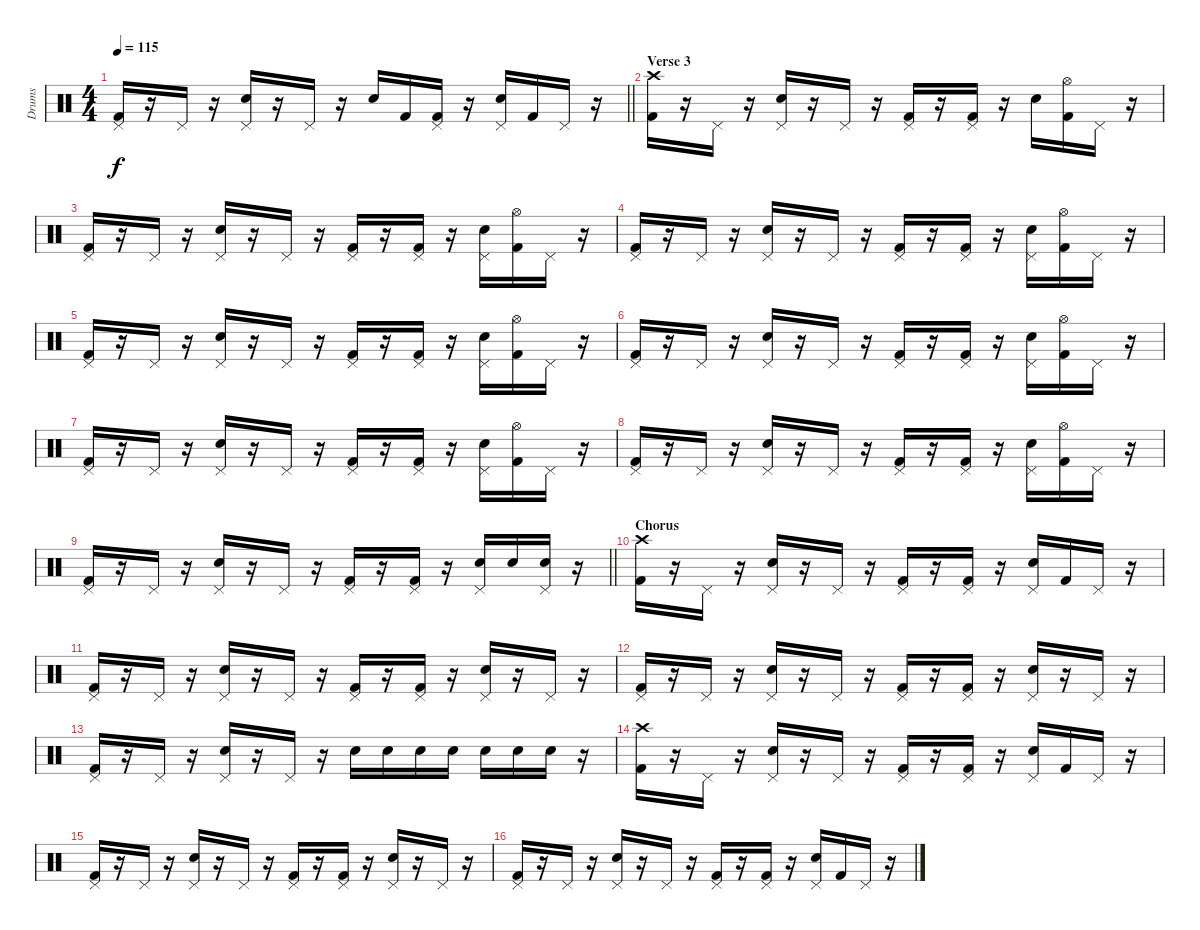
\track ("Drums" "Drums") {instrument percussion}
\staff {score}
\articulation defaults
\ts (4 4)
\tempo 115
\clef neutral
\barLineRight lightlight
\ks c
("Pedal Hi-Hat (hit)" "Kick (hit) 2").16{dy f} r.16 "Pedal Hi-Hat (hit)".16 r.16 ("Pedal Hi-Hat (hit)" "Snare (hit) 2").16 r.16 "Pedal Hi-Hat (hit)".16 r.16 "Snare (hit) 2".16 "Kick (hit) 2".16 ("Pedal Hi-Hat (hit)" "Kick (hit) 2").16 r.16 ("Pedal Hi-Hat (hit)" "Snare (hit) 2").16 "Kick (hit) 2".16 "Pedal Hi-Hat (hit)".16 r.16 |
\section ("" "Verse 3")
("Crash high (hit)" "Kick (hit) 2").16 r.16 "Pedal Hi-Hat (hit)".16 r.16 ("Pedal Hi-Hat (hit)" "Snare (hit) 2").16 r.16 "Pedal Hi-Hat (hit)".16 r.16 ("Pedal Hi-Hat (hit)" "Kick (hit) 2").16 r.16 ("Pedal Hi-Hat (hit)" "Kick (hit) 2").16 r.16 "Snare (hit) 2".16 ("Hi-Hat (open)" "Kick (hit) 2").16 "Pedal Hi-Hat (hit)".16 r.16 |
("Pedal Hi-Hat (hit)" "Kick (hit) 2").16 r.16 "Pedal Hi-Hat (hit)".16 r.16 ("Pedal Hi-Hat (hit)" "Snare (hit) 2").16 r.16 "Pedal Hi-Hat (hit)".16 r.16 ("Pedal Hi-Hat (hit)" "Kick (hit) 2").16 r.16 ("Pedal Hi-Hat (hit)" "Kick (hit) 2").16 r.16 ("Pedal Hi-Hat (hit)" "Snare (hit) 2").16 ("Hi-Hat (open)" "Kick (hit) 2").16 "Pedal Hi-Hat (hit)".16 r.16 |
("Pedal Hi-Hat (hit)" "Kick (hit) 2").16 r.16 "Pedal Hi-Hat (hit)".16 r.16 ("Pedal Hi-Hat (hit)" "Snare (hit) 2").16 r.16 "Pedal Hi-Hat (hit)".16 r.16 ("Pedal Hi-Hat (hit)" "Kick (hit) 2").16 r.16 ("Pedal Hi-Hat (hit)" "Kick (hit) 2").16 r.16 ("Pedal Hi-Hat (hit)" "Snare (hit) 2").16 ("Hi-Hat (open)" "Kick (hit) 2").16 "Pedal Hi-Hat (hit)".16 r.16 |
("Pedal Hi-Hat (hit)" "Kick (hit) 2").16 r.16 "Pedal Hi-Hat (hit)".16 r.16 ("Pedal Hi-Hat (hit)" "Snare (hit) 2").16 r.16 "Pedal Hi-Hat (hit)".16 r.16 ("Pedal Hi-Hat (hit)" "Kick (hit) 2").16 r.16 ("Pedal Hi-Hat (hit)" "Kick (hit) 2").16 r.16 ("Pedal Hi-Hat (hit)" "Snare (hit) 2").16 ("Hi-Hat (open)" "Kick (hit) 2").16 "Pedal Hi-Hat (hit)".16 r.16 |
("Pedal Hi-Hat (hit)" "Kick (hit) 2").16 r.16 "Pedal Hi-Hat (hit)".16 r.16 ("Pedal Hi-Hat (hit)" "Snare (hit) 2").16 r.16 "Pedal Hi-Hat (hit)".16 r.16 ("Pedal Hi-Hat (hit)" "Kick (hit) 2").16 r.16 ("Pedal Hi-Hat (hit)" "Kick (hit) 2").16 r.16 ("Pedal Hi-Hat (hit)" "Snare (hit) 2").16 ("Hi-Hat (open)" "Kick (hit) 2").16 "Pedal Hi-Hat (hit)".16 r.16 |
("Pedal Hi-Hat (hit)" "Kick (hit) 2").16 r.16 "Pedal Hi-Hat (hit)".16 r.16 ("Pedal Hi-Hat (hit)" "Snare (hit) 2").16 r.16 "Pedal Hi-Hat (hit)".16 r.16 ("Pedal Hi-Hat (hit)" "Kick (hit) 2").16 r.16 ("Pedal Hi-Hat (hit)" "Kick (hit) 2").16 r.16 ("Pedal Hi-Hat (hit)" "Snare (hit) 2").16 ("Hi-Hat (open)" "Kick (hit) 2").16 "Pedal Hi-Hat (hit)".16 r.16 |
("Pedal Hi-Hat (hit)" "Kick (hit) 2").16 r.16 "Pedal Hi-Hat (hit)".16 r.16 ("Pedal Hi-Hat (hit)" "Snare (hit) 2").16 r.16 "Pedal Hi-Hat (hit)".16 r.16 ("Pedal Hi-Hat (hit)" "Kick (hit) 2").16 r.16 ("Pedal Hi-Hat (hit)" "Kick (hit) 2").16 r.16 ("Pedal Hi-Hat (hit)" "Snare (hit) 2").16 ("Hi-Hat (open)" "Kick (hit) 2").16 "Pedal Hi-Hat (hit)".16 r.16 |
\barLineRight lightlight
("Pedal Hi-Hat (hit)" "Kick (hit) 2").16 r.16 "Pedal Hi-Hat (hit)".16 r.16 ("Pedal Hi-Hat (hit)" "Snare (hit) 2").16 r.16 "Pedal Hi-Hat (hit)".16 r.16 ("Pedal Hi-Hat (hit)" "Kick (hit) 2").16 r.16 ("Pedal Hi-Hat (hit)" "Kick (hit) 2").16 r.16 ("Pedal Hi-Hat (hit)" "Snare (hit) 2").16 "Snare (hit) 2".16 ("Pedal Hi-Hat (hit)" "Snare (hit) 2").16 r.16 |
\section ("" "Chorus")
("Crash high (hit)" "Kick (hit) 2").16 r.16 "Pedal Hi-Hat (hit)".16 r.16 ("Pedal Hi-Hat (hit)" "Snare (hit) 2").16 r.16 "Pedal Hi-Hat (hit)".16 r.16 ("Pedal Hi-Hat (hit)" "Kick (hit) 2").16 r.16 ("Pedal Hi-Hat (hit)" "Kick (hit) 2").16 r.16 ("Pedal Hi-Hat (hit)" "Snare (hit) 2").16 "Kick (hit) 2".16 "Pedal Hi-Hat (hit)".16 r.16 |
("Pedal Hi-Hat (hit)" "Kick (hit) 2").16 r.16 "Pedal Hi-Hat (hit)".16 r.16 ("Pedal Hi-Hat (hit)" "Snare (hit) 2").16 r.16 "Pedal Hi-Hat (hit)".16 r.16 ("Pedal Hi-Hat (hit)" "Kick (hit) 2").16 r.16 ("Pedal Hi-Hat (hit)" "Kick (hit) 2").16 r.16 ("Pedal Hi-Hat (hit)" "Snare (hit) 2").16 r.16 "Pedal Hi-Hat (hit)".16 r.16 |
("Pedal Hi-Hat (hit)" "Kick (hit) 2").16 r.16 "Pedal Hi-Hat (hit)".16 r.16 ("Pedal Hi-Hat (hit)" "Snare (hit) 2").16 r.16 "Pedal Hi-Hat (hit)".16 r.16 ("Pedal Hi-Hat (hit)" "Kick (hit) 2").16 r.16 ("Pedal Hi-Hat (hit)" "Kick (hit) 2").16 r.16 ("Pedal Hi-Hat (hit)" "Snare (hit) 2").16 r.16 "Pedal Hi-Hat (hit)".16 r.16 |
("Pedal Hi-Hat (hit)" "Kick (hit) 2").16 r.16 "Pedal Hi-Hat (hit)".16 r.16 ("Pedal Hi-Hat (hit)" "Snare (hit) 2").16 r.16 "Pedal Hi-Hat (hit)".16 r.16 "Snare (hit) 2".16 "Snare (hit) 2".16 "Snare (hit) 2".16 "Snare (hit) 2".16 "Snare (hit) 2".16 "Snare (hit) 2".16 "Snare (hit) 2".16 r.16 |
("Crash high (hit)" "Kick (hit) 2").16 r.16 "Pedal Hi-Hat (hit)".16 r.16 ("Pedal Hi-Hat (hit)" "Snare (hit) 2").16 r.16 "Pedal Hi-Hat (hit)".16 r.16 ("Pedal Hi-Hat (hit)" "Kick (hit) 2").16 r.16 ("Pedal Hi-Hat (hit)" "Kick (hit) 2").16 r.16 ("Pedal Hi-Hat (hit)" "Snare (hit) 2").16 "Kick (hit) 2".16 "Pedal Hi-Hat (hit)".16 r.16 |
("Pedal Hi-Hat (hit)" "Kick (hit) 2").16 r.16 "Pedal Hi-Hat (hit)".16 r.16 ("Pedal Hi-Hat (hit)" "Snare (hit) 2").16 r.16 "Pedal Hi-Hat (hit)".16 r.16 ("Pedal Hi-Hat (hit)" "Kick (hit) 2").16 r.16 ("Pedal Hi-Hat (hit)" "Kick (hit) 2").16 r.16 ("Pedal Hi-Hat (hit)" "Snare (hit) 2").16 r.16 "Pedal Hi-Hat (hit)".16 r.16 |
("Pedal Hi-Hat (hit)" "Kick (hit) 2").16 r.16 "Pedal Hi-Hat (hit)".16 r.16 ("Pedal Hi-Hat (hit)" "Snare (hit) 2").16 r.16 "Pedal Hi-Hat (hit)".16 r.16 ("Pedal Hi-Hat (hit)" "Kick (hit) 2").16 r.16 ("Pedal Hi-Hat (hit)" "Kick (hit) 2").16 r.16 ("Pedal Hi-Hat (hit)" "Snare (hit) 2").16 "Kick (hit) 2".16 "Pedal Hi-Hat (hit)".16 r.16
